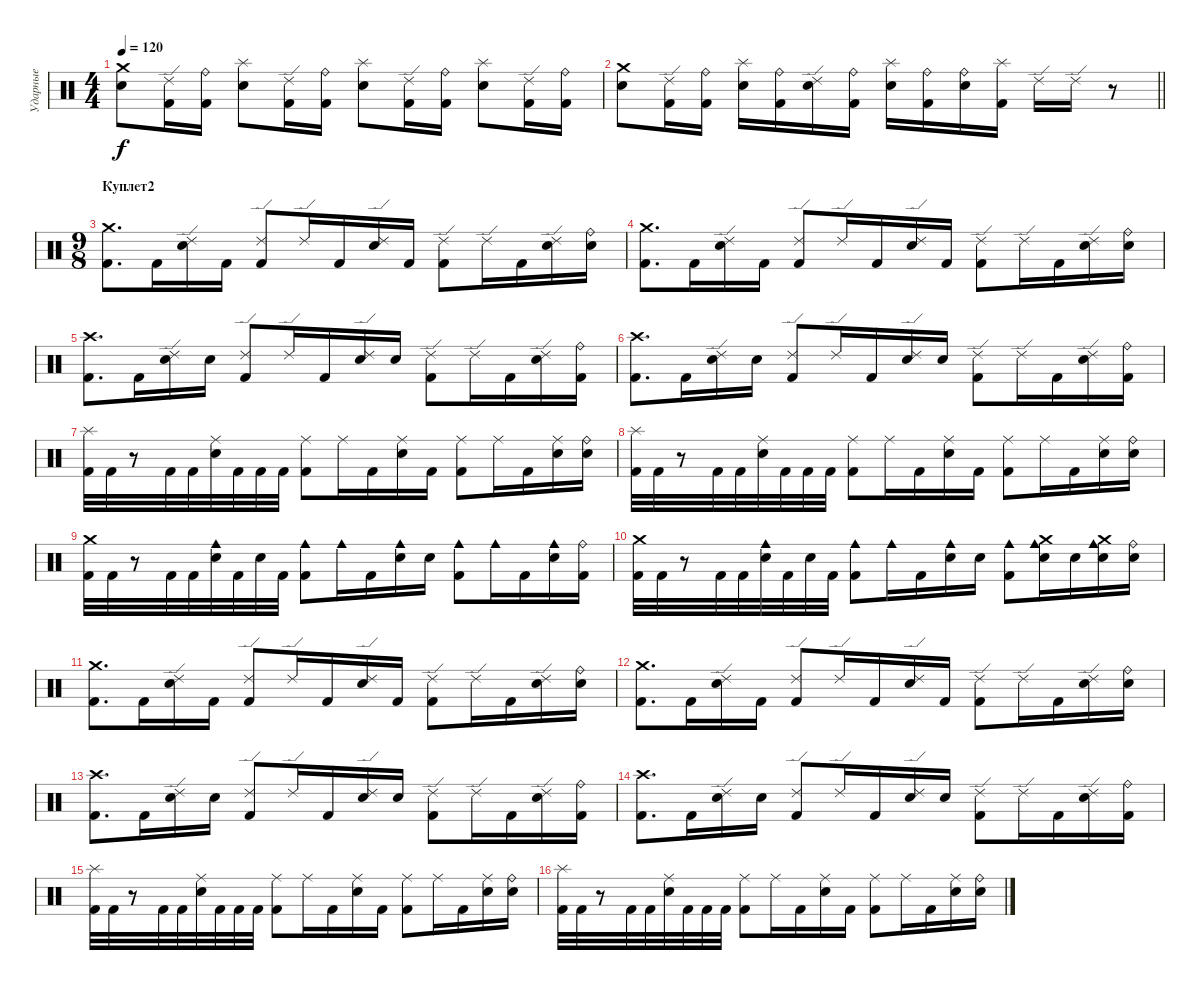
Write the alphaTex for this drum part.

\track ("Ударные" "Ударные") {instrument percussion}
\staff {score}
\articulation defaults
\ts (4 4)
\tempo 120
\clef neutral
\ks c
("Crash medium (hit)" "Electric Snare (hit)").8{dy f} ("Ride (edge) 2" "Kick (hit) 2").16 ("Ride (bell)" "Kick (hit) 2").16 ("Splash (hit)" "Electric Snare (hit)").8 ("Ride (edge) 2" "Kick (hit) 2").16 ("Ride (bell)" "Kick (hit) 2").16 ("Splash (hit)" "Electric Snare (hit)").8 ("Ride (edge) 2" "Kick (hit) 2").16 ("Ride (bell)" "Kick (hit) 2").16 ("Splash (hit)" "Electric Snare (hit)").8 ("Ride (edge) 2" "Kick (hit) 2").16 ("Ride (bell)" "Kick (hit) 2").16 |
\barLineRight lightlight
("Crash medium (hit)" "Electric Snare (hit)").8 ("Ride (edge) 2" "Kick (hit) 2").16 ("Ride (bell)" "Kick (hit) 2").16 ("Splash (hit)" "Electric Snare (hit)").16 ("Ride (bell)" "Kick (hit) 2").16 ("Ride (edge) 2" "Electric Snare (hit)").16 ("Ride (bell)" "Kick (hit) 2").16 ("Splash (hit)" "Electric Snare (hit)").16 ("Ride (bell)" "Kick (hit) 2").16 ("Ride (bell)" "Electric Snare (hit)").16 ("Splash (hit)" "Kick (hit) 2").16 "Ride (edge) 2".16 "Ride (edge) 2".16 r.8 |
\ts (9 8)
\section ("" "Куплет2")
("Crash medium (hit)" "Kick (hit) 2").8{d} "Kick (hit) 2".16 ("Ride (edge) 2" "Electric Snare (hit)").16 "Kick (hit) 2".16 ("Ride (edge) 2" "Kick (hit) 2").8 "Ride (edge) 2".16 "Kick (hit) 2".16 ("Ride (edge) 2" "Electric Snare (hit)").16 "Kick (hit) 2".16 ("Ride (edge) 2" "Kick (hit) 2").8 "Ride (edge) 2".16 "Kick (hit) 2".16 ("Ride (edge) 2" "Electric Snare (hit)").16 ("Ride (bell)" "Electric Snare (hit)").16 |
("Kick (hit) 2" "Crash medium (hit)").8{d} "Kick (hit) 2".16 ("Electric Snare (hit)" "Ride (edge) 2").16 "Kick (hit) 2".16 ("Kick (hit) 2" "Ride (edge) 2").8 "Ride (edge) 2".16 "Kick (hit) 2".16 ("Electric Snare (hit)" "Ride (edge) 2").16 "Kick (hit) 2".16 ("Kick (hit) 2" "Ride (edge) 2").8 "Ride (edge) 2".16 "Kick (hit) 2".16 ("Electric Snare (hit)" "Ride (edge) 2").16 ("Electric Snare (hit)" "Ride (bell)").16 |
("Crash high (hit)" "Kick (hit) 2").8{d} "Kick (hit) 2".16 ("Ride (edge) 2" "Electric Snare (hit)").16 "Electric Snare (hit)".16 ("Ride (edge) 2" "Kick (hit) 2").8 "Ride (edge) 2".16 "Kick (hit) 2".16 ("Ride (edge) 2" "Electric Snare (hit)").16 "Electric Snare (hit)".16 ("Ride (edge) 2" "Kick (hit) 2").8 "Ride (edge) 2".16 "Kick (hit) 2".16 ("Ride (edge) 2" "Electric Snare (hit)").16 ("Kick (hit) 2" "Ride (bell)").16 |
("Crash high (hit)" "Kick (hit) 2").8{d} "Kick (hit) 2".16 ("Electric Snare (hit)" "Ride (edge) 2").16 "Electric Snare (hit)".16 ("Kick (hit) 2" "Ride (edge) 2").8 "Ride (edge) 2".16 "Kick (hit) 2".16 ("Electric Snare (hit)" "Ride (edge) 2").16 "Electric Snare (hit)".16 ("Kick (hit) 2" "Ride (edge) 2").8 "Ride (edge) 2".16 "Kick (hit) 2".16 ("Electric Snare (hit)" "Ride (edge) 2").16 ("Kick (hit) 2" "Ride (bell)").16 |
("Splash (hit)" "Kick (hit) 2").32 "Kick (hit) 2".32 r.8 "Kick (hit) 2".32 "Kick (hit) 2".32 ("Electric Snare (hit)" "Ride (middle)").32 "Kick (hit) 2".32 "Kick (hit) 2".32 "Kick (hit) 2".32 ("Kick (hit) 2" "Ride (middle)").8 "Ride (middle)".16 "Kick (hit) 2".16 ("Electric Snare (hit)" "Ride (middle)").16 "Kick (hit) 2".16 ("Kick (hit) 2" "Ride (middle)").8 "Ride (middle)".16 "Kick (hit) 2".16 ("Electric Snare (hit)" "Ride (middle)").16 ("Electric Snare (hit)" "Ride (bell)").16 |
("Splash (hit)" "Kick (hit) 2").32 "Kick (hit) 2".32 r.8 "Kick (hit) 2".32 "Kick (hit) 2".32 ("Electric Snare (hit)" "Ride (middle)").32 "Kick (hit) 2".32 "Kick (hit) 2".32 "Kick (hit) 2".32 ("Kick (hit) 2" "Ride (middle)").8 "Ride (middle)".16 "Kick (hit) 2".16 ("Electric Snare (hit)" "Ride (middle)").16 "Kick (hit) 2".16 ("Kick (hit) 2" "Ride (middle)").8 "Ride (middle)".16 "Kick (hit) 2".16 ("Electric Snare (hit)" "Ride (middle)").16 ("Electric Snare (hit)" "Ride (bell)").16 |
("Crash medium (hit)" "Kick (hit) 2").32 "Kick (hit) 2".32 r.8 "Kick (hit) 2".32 "Kick (hit) 2".32 ("Electric Snare (hit)" "Cowbell medium (hit)").32 "Kick (hit) 2".32 "Electric Snare (hit)".32 "Kick (hit) 2".32 ("Kick (hit) 2" "Cowbell medium (hit)").8 "Cowbell medium (hit)".16 "Kick (hit) 2".16 ("Electric Snare (hit)" "Cowbell medium (hit)").16 "Electric Snare (hit)".16 ("Kick (hit) 2" "Cowbell medium (hit)").8 "Cowbell medium (hit)".16 "Kick (hit) 2".16 ("Electric Snare (hit)" "Cowbell medium (hit)").16 ("Ride (bell)" "Kick (hit) 2").16 |
("Crash medium (hit)" "Kick (hit) 2").32 "Kick (hit) 2".32 r.8 "Kick (hit) 2".32 "Kick (hit) 2".32 ("Electric Snare (hit)" "Cowbell medium (hit)").32 "Kick (hit) 2".32 "Electric Snare (hit)".32 "Kick (hit) 2".32 ("Kick (hit) 2" "Cowbell medium (hit)").8 "Cowbell medium (hit)".16 "Kick (hit) 2".16 ("Electric Snare (hit)" "Cowbell medium (hit)").16 "Electric Snare (hit)".16 ("Kick (hit) 2" "Cowbell medium (hit)").8 ("Crash medium (hit)" "Electric Snare (hit)" "Cowbell medium (hit)").16 "Electric Snare (hit)".16 ("Electric Snare (hit)" "Crash medium (hit)" "Cowbell medium (hit)").16 ("Electric Snare (hit)" "Ride (bell)").16 |
("Crash medium (hit)" "Kick (hit) 2").8{d} "Kick (hit) 2".16 ("Ride (edge) 2" "Electric Snare (hit)").16 "Kick (hit) 2".16 ("Ride (edge) 2" "Kick (hit) 2").8 "Ride (edge) 2".16 "Kick (hit) 2".16 ("Ride (edge) 2" "Electric Snare (hit)").16 "Kick (hit) 2".16 ("Ride (edge) 2" "Kick (hit) 2").8 "Ride (edge) 2".16 "Kick (hit) 2".16 ("Ride (edge) 2" "Electric Snare (hit)").16 ("Ride (bell)" "Electric Snare (hit)").16 |
("Kick (hit) 2" "Crash medium (hit)").8{d} "Kick (hit) 2".16 ("Electric Snare (hit)" "Ride (edge) 2").16 "Kick (hit) 2".16 ("Kick (hit) 2" "Ride (edge) 2").8 "Ride (edge) 2".16 "Kick (hit) 2".16 ("Electric Snare (hit)" "Ride (edge) 2").16 "Kick (hit) 2".16 ("Kick (hit) 2" "Ride (edge) 2").8 "Ride (edge) 2".16 "Kick (hit) 2".16 ("Electric Snare (hit)" "Ride (edge) 2").16 ("Electric Snare (hit)" "Ride (bell)").16 |
("Crash high (hit)" "Kick (hit) 2").8{d} "Kick (hit) 2".16 ("Ride (edge) 2" "Electric Snare (hit)").16 "Electric Snare (hit)".16 ("Ride (edge) 2" "Kick (hit) 2").8 "Ride (edge) 2".16 "Kick (hit) 2".16 ("Ride (edge) 2" "Electric Snare (hit)").16 "Electric Snare (hit)".16 ("Ride (edge) 2" "Kick (hit) 2").8 "Ride (edge) 2".16 "Kick (hit) 2".16 ("Ride (edge) 2" "Electric Snare (hit)").16 ("Kick (hit) 2" "Ride (bell)").16 |
("Crash high (hit)" "Kick (hit) 2").8{d} "Kick (hit) 2".16 ("Electric Snare (hit)" "Ride (edge) 2").16 "Electric Snare (hit)".16 ("Kick (hit) 2" "Ride (edge) 2").8 "Ride (edge) 2".16 "Kick (hit) 2".16 ("Electric Snare (hit)" "Ride (edge) 2").16 "Electric Snare (hit)".16 ("Kick (hit) 2" "Ride (edge) 2").8 "Ride (edge) 2".16 "Kick (hit) 2".16 ("Electric Snare (hit)" "Ride (edge) 2").16 ("Kick (hit) 2" "Ride (bell)").16 |
("Splash (hit)" "Kick (hit) 2").32 "Kick (hit) 2".32 r.8 "Kick (hit) 2".32 "Kick (hit) 2".32 ("Electric Snare (hit)" "Ride (middle)").32 "Kick (hit) 2".32 "Kick (hit) 2".32 "Kick (hit) 2".32 ("Kick (hit) 2" "Ride (middle)").8 "Ride (middle)".16 "Kick (hit) 2".16 ("Electric Snare (hit)" "Ride (middle)").16 "Kick (hit) 2".16 ("Kick (hit) 2" "Ride (middle)").8 "Ride (middle)".16 "Kick (hit) 2".16 ("Electric Snare (hit)" "Ride (middle)").16 ("Electric Snare (hit)" "Ride (bell)").16 |
("Splash (hit)" "Kick (hit) 2").32 "Kick (hit) 2".32 r.8 "Kick (hit) 2".32 "Kick (hit) 2".32 ("Electric Snare (hit)" "Ride (middle)").32 "Kick (hit) 2".32 "Kick (hit) 2".32 "Kick (hit) 2".32 ("Kick (hit) 2" "Ride (middle)").8 "Ride (middle)".16 "Kick (hit) 2".16 ("Electric Snare (hit)" "Ride (middle)").16 "Kick (hit) 2".16 ("Kick (hit) 2" "Ride (middle)").8 "Ride (middle)".16 "Kick (hit) 2".16 ("Electric Snare (hit)" "Ride (middle)").16 ("Electric Snare (hit)" "Ride (bell)").16
